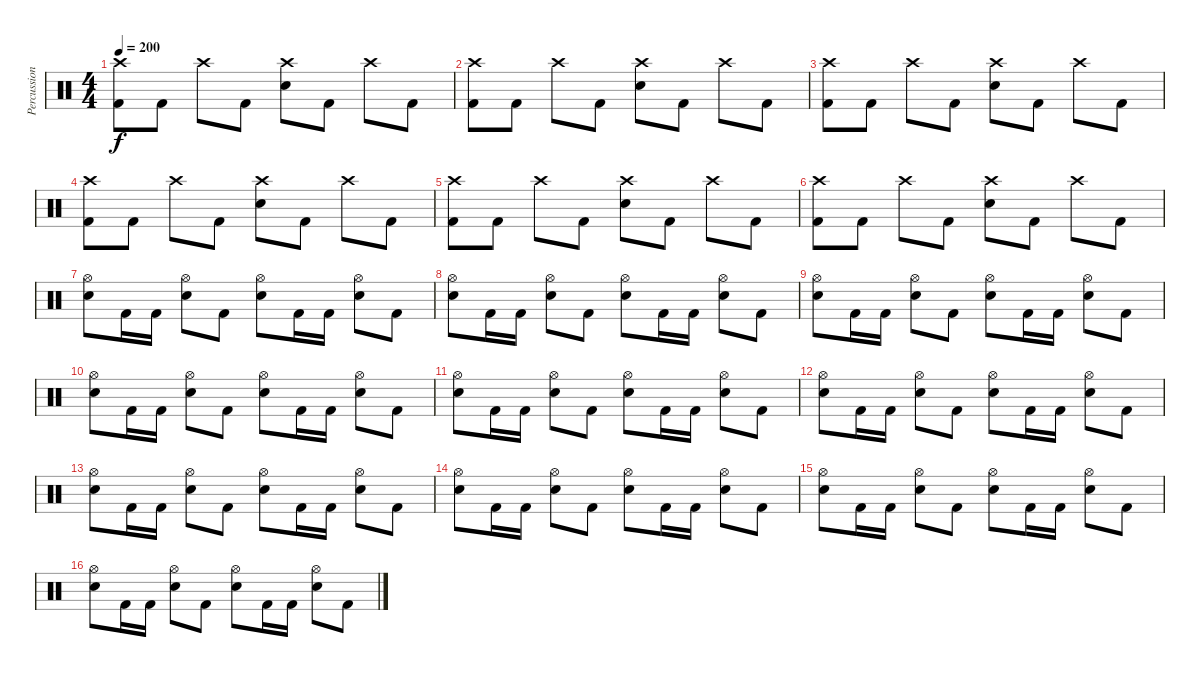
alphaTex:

\track ("Percussion" "Percussion") {instrument percussion}
\staff {score}
\articulation defaults
\ts (4 4)
\tempo 200
\clef neutral
\ks c
("Crash high (hit)" "Kick (hit) 2").8{dy f} "Kick (hit) 2".8 "Crash high (hit)".8 "Kick (hit) 2".8 ("Crash high (hit)" "Electric Snare (hit)").8 "Kick (hit) 2".8 "Crash high (hit)".8 "Kick (hit) 2".8 |
("Crash high (hit)" "Kick (hit) 2").8 "Kick (hit) 2".8 "Crash high (hit)".8 "Kick (hit) 2".8 ("Crash high (hit)" "Electric Snare (hit)").8 "Kick (hit) 2".8 "Crash high (hit)".8 "Kick (hit) 2".8 |
("Crash high (hit)" "Kick (hit) 2").8 "Kick (hit) 2".8 "Crash high (hit)".8 "Kick (hit) 2".8 ("Crash high (hit)" "Electric Snare (hit)").8 "Kick (hit) 2".8 "Crash high (hit)".8 "Kick (hit) 2".8 |
("Crash high (hit)" "Kick (hit) 2").8 "Kick (hit) 2".8 "Crash high (hit)".8 "Kick (hit) 2".8 ("Crash high (hit)" "Electric Snare (hit)").8 "Kick (hit) 2".8 "Crash high (hit)".8 "Kick (hit) 2".8 |
("Crash high (hit)" "Kick (hit) 2").8 "Kick (hit) 2".8 "Crash high (hit)".8 "Kick (hit) 2".8 ("Crash high (hit)" "Electric Snare (hit)").8 "Kick (hit) 2".8 "Crash high (hit)".8 "Kick (hit) 2".8 |
("Crash high (hit)" "Kick (hit) 2").8 "Kick (hit) 2".8 "Crash high (hit)".8 "Kick (hit) 2".8 ("Crash high (hit)" "Electric Snare (hit)").8 "Kick (hit) 2".8 "Crash high (hit)".8 "Kick (hit) 2".8 |
("Hi-Hat (open)" "Electric Snare (hit)").8 "Kick (hit) 2".16 "Kick (hit) 2".16 ("Hi-Hat (open)" "Electric Snare (hit)").8 "Kick (hit) 2".8 ("Hi-Hat (open)" "Electric Snare (hit)").8 "Kick (hit) 2".16 "Kick (hit) 2".16 ("Hi-Hat (open)" "Electric Snare (hit)").8 "Kick (hit) 2".8 |
("Hi-Hat (open)" "Electric Snare (hit)").8 "Kick (hit) 2".16 "Kick (hit) 2".16 ("Hi-Hat (open)" "Electric Snare (hit)").8 "Kick (hit) 2".8 ("Hi-Hat (open)" "Electric Snare (hit)").8 "Kick (hit) 2".16 "Kick (hit) 2".16 ("Hi-Hat (open)" "Electric Snare (hit)").8 "Kick (hit) 2".8 |
("Hi-Hat (open)" "Electric Snare (hit)").8 "Kick (hit) 2".16 "Kick (hit) 2".16 ("Hi-Hat (open)" "Electric Snare (hit)").8 "Kick (hit) 2".8 ("Hi-Hat (open)" "Electric Snare (hit)").8 "Kick (hit) 2".16 "Kick (hit) 2".16 ("Hi-Hat (open)" "Electric Snare (hit)").8 "Kick (hit) 2".8 |
("Hi-Hat (open)" "Electric Snare (hit)").8 "Kick (hit) 2".16 "Kick (hit) 2".16 ("Hi-Hat (open)" "Electric Snare (hit)").8 "Kick (hit) 2".8 ("Hi-Hat (open)" "Electric Snare (hit)").8 "Kick (hit) 2".16 "Kick (hit) 2".16 ("Hi-Hat (open)" "Electric Snare (hit)").8 "Kick (hit) 2".8 |
("Hi-Hat (open)" "Electric Snare (hit)").8 "Kick (hit) 2".16 "Kick (hit) 2".16 ("Hi-Hat (open)" "Electric Snare (hit)").8 "Kick (hit) 2".8 ("Hi-Hat (open)" "Electric Snare (hit)").8 "Kick (hit) 2".16 "Kick (hit) 2".16 ("Hi-Hat (open)" "Electric Snare (hit)").8 "Kick (hit) 2".8 |
("Hi-Hat (open)" "Electric Snare (hit)").8 "Kick (hit) 2".16 "Kick (hit) 2".16 ("Hi-Hat (open)" "Electric Snare (hit)").8 "Kick (hit) 2".8 ("Hi-Hat (open)" "Electric Snare (hit)").8 "Kick (hit) 2".16 "Kick (hit) 2".16 ("Hi-Hat (open)" "Electric Snare (hit)").8 "Kick (hit) 2".8 |
("Hi-Hat (open)" "Electric Snare (hit)").8 "Kick (hit) 2".16 "Kick (hit) 2".16 ("Hi-Hat (open)" "Electric Snare (hit)").8 "Kick (hit) 2".8 ("Hi-Hat (open)" "Electric Snare (hit)").8 "Kick (hit) 2".16 "Kick (hit) 2".16 ("Hi-Hat (open)" "Electric Snare (hit)").8 "Kick (hit) 2".8 |
("Hi-Hat (open)" "Electric Snare (hit)").8 "Kick (hit) 2".16 "Kick (hit) 2".16 ("Hi-Hat (open)" "Electric Snare (hit)").8 "Kick (hit) 2".8 ("Hi-Hat (open)" "Electric Snare (hit)").8 "Kick (hit) 2".16 "Kick (hit) 2".16 ("Hi-Hat (open)" "Electric Snare (hit)").8 "Kick (hit) 2".8 |
("Hi-Hat (open)" "Electric Snare (hit)").8 "Kick (hit) 2".16 "Kick (hit) 2".16 ("Hi-Hat (open)" "Electric Snare (hit)").8 "Kick (hit) 2".8 ("Hi-Hat (open)" "Electric Snare (hit)").8 "Kick (hit) 2".16 "Kick (hit) 2".16 ("Hi-Hat (open)" "Electric Snare (hit)").8 "Kick (hit) 2".8 |
("Hi-Hat (open)" "Electric Snare (hit)").8 "Kick (hit) 2".16 "Kick (hit) 2".16 ("Hi-Hat (open)" "Electric Snare (hit)").8 "Kick (hit) 2".8 ("Hi-Hat (open)" "Electric Snare (hit)").8 "Kick (hit) 2".16 "Kick (hit) 2".16 ("Hi-Hat (open)" "Electric Snare (hit)").8 "Kick (hit) 2".8
